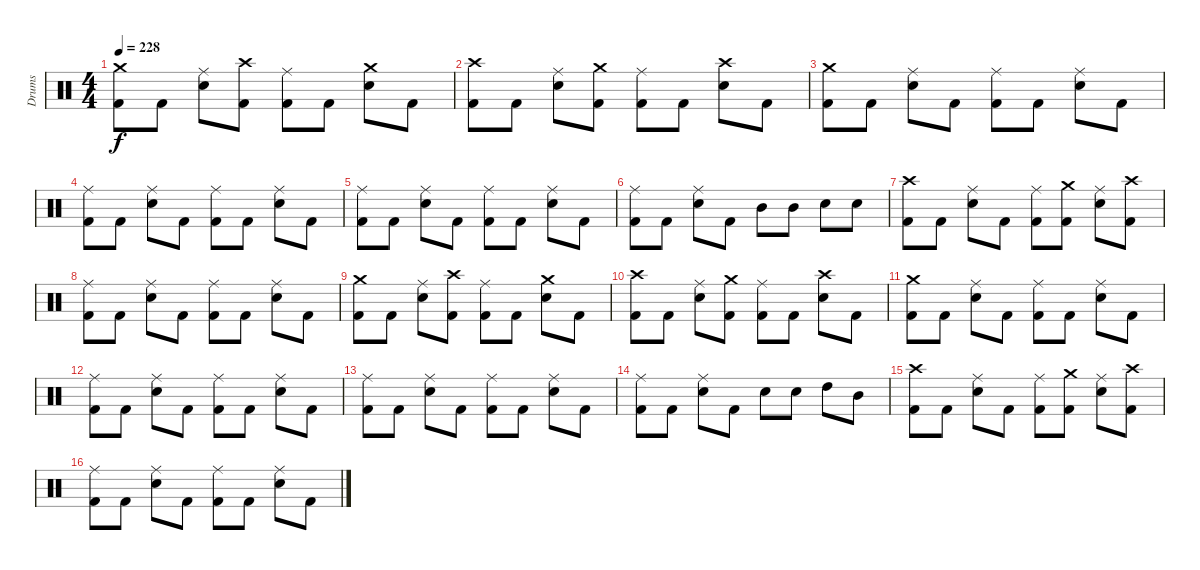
\track ("Drums" "Drums") {instrument percussion}
\staff {score}
\articulation defaults
\ts (4 4)
\tempo 228
\clef neutral
\ks c
("Crash medium (hit)" "Kick (hit) 2").8{dy f} "Kick (hit) 2".8 ("Ride (middle)" "Snare (hit) 2").8 ("Crash high (hit)" "Kick (hit) 2").8 ("Ride (middle)" "Kick (hit) 2").8 "Kick (hit) 2".8 ("Crash medium (hit)" "Snare (hit) 2").8 "Kick (hit) 2".8 |
("Crash high (hit)" "Kick (hit) 2").8 "Kick (hit) 2".8 ("Ride (middle)" "Snare (hit) 2").8 ("Crash medium (hit)" "Kick (hit) 2").8 ("Ride (middle)" "Kick (hit) 2").8 "Kick (hit) 2".8 ("Crash high (hit)" "Snare (hit) 2").8 "Kick (hit) 2".8 |
("Crash medium (hit)" "Kick (hit) 2").8 "Kick (hit) 2".8 ("Ride (middle)" "Snare (hit) 2").8 "Kick (hit) 2".8 ("Ride (middle)" "Kick (hit) 2").8 "Kick (hit) 2".8 ("Ride (middle)" "Snare (hit) 2").8 "Kick (hit) 2".8 |
("Ride (middle)" "Kick (hit) 2").8 "Kick (hit) 2".8 ("Ride (middle)" "Snare (hit) 2").8 "Kick (hit) 2".8 ("Ride (middle)" "Kick (hit) 2").8 "Kick (hit) 2".8 ("Ride (middle)" "Snare (hit) 2").8 "Kick (hit) 2".8 |
("Ride (middle)" "Kick (hit) 2").8 "Kick (hit) 2".8 ("Ride (middle)" "Snare (hit) 2").8 "Kick (hit) 2".8 ("Ride (middle)" "Kick (hit) 2").8 "Kick (hit) 2".8 ("Ride (middle)" "Snare (hit) 2").8 "Kick (hit) 2".8 |
("Ride (middle)" "Kick (hit) 2").8 "Kick (hit) 2".8 ("Ride (middle)" "Snare (hit) 2").8 "Kick (hit) 2".8 "Mid Tom (hit)".8 "Mid Tom (hit)".8 "Snare (hit) 2".8 "Snare (hit) 2".8 |
("Crash high (hit)" "Kick (hit) 2").8 "Kick (hit) 2".8 ("Ride (middle)" "Snare (hit) 2").8 "Kick (hit) 2".8 ("Ride (middle)" "Kick (hit) 2").8 ("Crash medium (hit)" "Kick (hit) 2").8 ("Ride (middle)" "Snare (hit) 2").8 ("Crash high (hit)" "Kick (hit) 2").8 |
("Ride (middle)" "Kick (hit) 2").8 "Kick (hit) 2".8 ("Ride (middle)" "Snare (hit) 2").8 "Kick (hit) 2".8 ("Ride (middle)" "Kick (hit) 2").8 "Kick (hit) 2".8 ("Ride (middle)" "Snare (hit) 2").8 "Kick (hit) 2".8 |
("Crash medium (hit)" "Kick (hit) 2").8 "Kick (hit) 2".8 ("Ride (middle)" "Snare (hit) 2").8 ("Crash high (hit)" "Kick (hit) 2").8 ("Ride (middle)" "Kick (hit) 2").8 "Kick (hit) 2".8 ("Crash medium (hit)" "Snare (hit) 2").8 "Kick (hit) 2".8 |
("Crash high (hit)" "Kick (hit) 2").8 "Kick (hit) 2".8 ("Ride (middle)" "Snare (hit) 2").8 ("Crash medium (hit)" "Kick (hit) 2").8 ("Ride (middle)" "Kick (hit) 2").8 "Kick (hit) 2".8 ("Crash high (hit)" "Snare (hit) 2").8 "Kick (hit) 2".8 |
("Crash medium (hit)" "Kick (hit) 2").8 "Kick (hit) 2".8 ("Ride (middle)" "Snare (hit) 2").8 "Kick (hit) 2".8 ("Ride (middle)" "Kick (hit) 2").8 "Kick (hit) 2".8 ("Ride (middle)" "Snare (hit) 2").8 "Kick (hit) 2".8 |
("Ride (middle)" "Kick (hit) 2").8 "Kick (hit) 2".8 ("Ride (middle)" "Snare (hit) 2").8 "Kick (hit) 2".8 ("Ride (middle)" "Kick (hit) 2").8 "Kick (hit) 2".8 ("Ride (middle)" "Snare (hit) 2").8 "Kick (hit) 2".8 |
("Ride (middle)" "Kick (hit) 2").8 "Kick (hit) 2".8 ("Ride (middle)" "Snare (hit) 2").8 "Kick (hit) 2".8 ("Ride (middle)" "Kick (hit) 2").8 "Kick (hit) 2".8 ("Ride (middle)" "Snare (hit) 2").8 "Kick (hit) 2".8 |
("Ride (middle)" "Kick (hit) 2").8 "Kick (hit) 2".8 ("Ride (middle)" "Snare (hit) 2").8 "Kick (hit) 2".8 "Snare (hit) 2".8 "Snare (hit) 2".8 "High Tom (hit)".8 "Mid Tom (hit)".8 |
("Crash high (hit)" "Kick (hit) 2").8 "Kick (hit) 2".8 ("Ride (middle)" "Snare (hit) 2").8 "Kick (hit) 2".8 ("Ride (middle)" "Kick (hit) 2").8 ("Crash medium (hit)" "Kick (hit) 2").8 ("Ride (middle)" "Snare (hit) 2").8 ("Crash high (hit)" "Kick (hit) 2").8 |
("Ride (middle)" "Kick (hit) 2").8 "Kick (hit) 2".8 ("Ride (middle)" "Snare (hit) 2").8 "Kick (hit) 2".8 ("Ride (middle)" "Kick (hit) 2").8 "Kick (hit) 2".8 ("Ride (middle)" "Snare (hit) 2").8 "Kick (hit) 2".8
